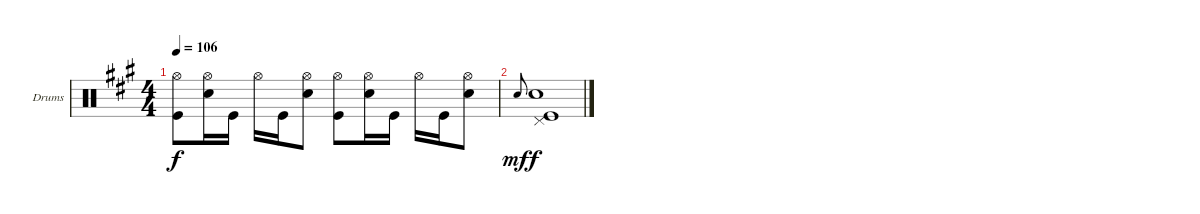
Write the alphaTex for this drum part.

\bracketExtendMode groupsimilarinstruments
\firstSystemTrackNameOrientation horizontal
\otherSystemsTrackNameOrientation horizontal
\track ("Fabrizio Moretti" "Drums") {instrument percussion}
\staff {score}
\articulation defaults
\ts (4 4)
\tempo 106
\clef neutral
\ks a
("Hi-Hat (open)" "Kick (hit)").8{dy f} ("Hi-Hat (open)" "Snare (hit) 2").16 "Kick (hit)".16 "Hi-Hat (open)".16 "Kick (hit)".16 ("Hi-Hat (open)" "Snare (hit) 2").8 ("Hi-Hat (open)" "Kick (hit)").8 ("Hi-Hat (open)" "Snare (hit) 2").16 "Kick (hit)".16 "Hi-Hat (open)".16 "Kick (hit)".16 ("Hi-Hat (open)" "Snare (hit) 2").8 |
"Snare (hit) 2".8{gr onbeat dy mf} ("Pedal Hi-Hat (hit)" "Snare (hit) 2" "Kick (hit)").1{dy f}
